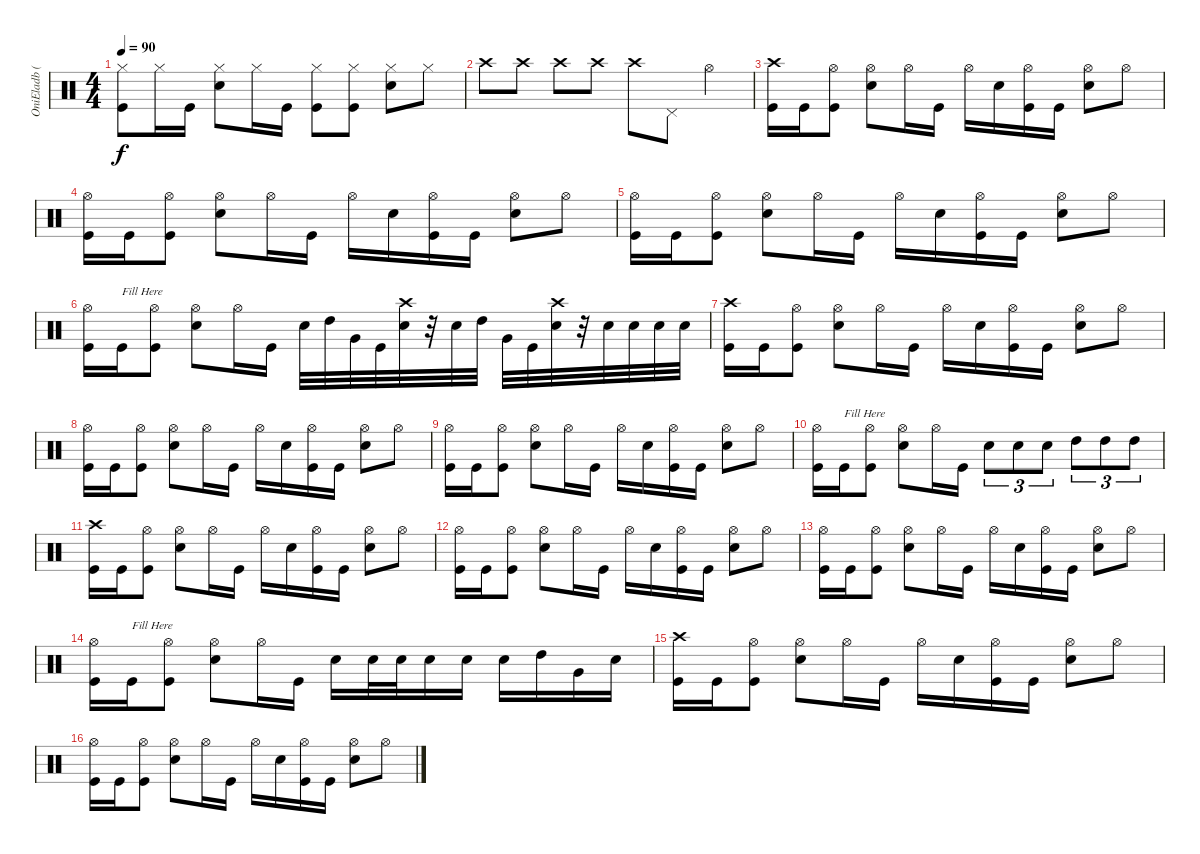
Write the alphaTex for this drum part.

\track ("OniEladb (Battérie)" "OniEladb (") {instrument percussion}
\staff {score}
\articulation defaults
\ts (4 4)
\tempo 90
\clef neutral
\ks c
("Hi-Hat (closed)" "Kick (hit)").8{dy f} "Hi-Hat (closed)".16 "Kick (hit)".16 ("Hi-Hat (closed)" "Snare (hit) 2").8 "Hi-Hat (closed)".16 "Kick (hit)".16 ("Hi-Hat (closed)" "Kick (hit)").8 ("Hi-Hat (closed)" "Kick (hit)").8 ("Hi-Hat (closed)" "Snare (hit) 2").8 "Hi-Hat (closed)".8 |
"Crash high (hit)".8 "Crash high (hit)".8 "Crash high (hit)".8 "Crash high (hit)".8 "Crash high (hit)".8 "Pedal Hi-Hat (hit)".8 "Hi-Hat (open)".4 |
("Crash high (hit)" "Kick (hit)").16 "Kick (hit)".16 ("Hi-Hat (open)" "Kick (hit)").8 ("Hi-Hat (open)" "Snare (hit) 2").8 "Hi-Hat (open)".16 "Kick (hit)".16 "Hi-Hat (open)".16 "Snare (hit) 2".16 ("Hi-Hat (open)" "Kick (hit)").16 "Kick (hit)".16 ("Hi-Hat (open)" "Snare (hit) 2").8 "Hi-Hat (open)".8 |
("Hi-Hat (open)" "Kick (hit)").16 "Kick (hit)".16 ("Hi-Hat (open)" "Kick (hit)").8 ("Hi-Hat (open)" "Snare (hit) 2").8 "Hi-Hat (open)".16 "Kick (hit)".16 "Hi-Hat (open)".16 "Snare (hit) 2".16 ("Hi-Hat (open)" "Kick (hit)").16 "Kick (hit)".16 ("Hi-Hat (open)" "Snare (hit) 2").8 "Hi-Hat (open)".8 |
("Hi-Hat (open)" "Kick (hit)").16 "Kick (hit)".16 ("Hi-Hat (open)" "Kick (hit)").8 ("Hi-Hat (open)" "Snare (hit) 2").8 "Hi-Hat (open)".16 "Kick (hit)".16 "Hi-Hat (open)".16 "Snare (hit) 2".16 ("Hi-Hat (open)" "Kick (hit)").16 "Kick (hit)".16 ("Hi-Hat (open)" "Snare (hit) 2").8 "Hi-Hat (open)".8 |
("Hi-Hat (open)" "Kick (hit)").16 "Kick (hit)".16{txt "Fill Here"} ("Hi-Hat (open)" "Kick (hit)").8 ("Hi-Hat (open)" "Snare (hit) 2").8 "Hi-Hat (open)".16 "Kick (hit)".16 "Snare (hit) 2".32 "High Tom (hit)".32 "Very Low Tom (hit)".32 "Kick (hit)".32 ("Crash high (hit)" "Snare (hit) 2").32 r.32 "Snare (hit) 2".32 "High Tom (hit)".32 "Very Low Tom (hit)".32 "Kick (hit)".32 ("Crash high (hit)" "Snare (hit) 2").32 r.32 "Snare (hit) 2".32 "Snare (hit) 2".32 "Snare (hit) 2".32 "Snare (hit) 2".32 |
("Crash high (hit)" "Kick (hit)").16 "Kick (hit)".16 ("Hi-Hat (open)" "Kick (hit)").8 ("Hi-Hat (open)" "Snare (hit) 2").8 "Hi-Hat (open)".16 "Kick (hit)".16 "Hi-Hat (open)".16 "Snare (hit) 2".16 ("Hi-Hat (open)" "Kick (hit)").16 "Kick (hit)".16 ("Hi-Hat (open)" "Snare (hit) 2").8 "Hi-Hat (open)".8 |
("Hi-Hat (open)" "Kick (hit)").16 "Kick (hit)".16 ("Hi-Hat (open)" "Kick (hit)").8 ("Hi-Hat (open)" "Snare (hit) 2").8 "Hi-Hat (open)".16 "Kick (hit)".16 "Hi-Hat (open)".16 "Snare (hit) 2".16 ("Hi-Hat (open)" "Kick (hit)").16 "Kick (hit)".16 ("Hi-Hat (open)" "Snare (hit) 2").8 "Hi-Hat (open)".8 |
("Hi-Hat (open)" "Kick (hit)").16 "Kick (hit)".16 ("Hi-Hat (open)" "Kick (hit)").8 ("Hi-Hat (open)" "Snare (hit) 2").8 "Hi-Hat (open)".16 "Kick (hit)".16 "Hi-Hat (open)".16 "Snare (hit) 2".16 ("Hi-Hat (open)" "Kick (hit)").16 "Kick (hit)".16 ("Hi-Hat (open)" "Snare (hit) 2").8 "Hi-Hat (open)".8 |
("Hi-Hat (open)" "Kick (hit)").16 "Kick (hit)".16{txt "Fill Here"} ("Hi-Hat (open)" "Kick (hit)").8 ("Hi-Hat (open)" "Snare (hit) 2").8 "Hi-Hat (open)".16 "Kick (hit)".16 "Snare (hit) 2".8{tu (3 2)} "Snare (hit) 2".8{tu (3 2)} "Snare (hit) 2".8{tu (3 2)} "High Tom (hit)".8{tu (3 2)} "High Tom (hit)".8{tu (3 2)} "High Tom (hit)".8{tu (3 2)} |
("Crash high (hit)" "Kick (hit)").16 "Kick (hit)".16 ("Hi-Hat (open)" "Kick (hit)").8 ("Hi-Hat (open)" "Snare (hit) 2").8 "Hi-Hat (open)".16 "Kick (hit)".16 "Hi-Hat (open)".16 "Snare (hit) 2".16 ("Hi-Hat (open)" "Kick (hit)").16 "Kick (hit)".16 ("Hi-Hat (open)" "Snare (hit) 2").8 "Hi-Hat (open)".8 |
("Hi-Hat (open)" "Kick (hit)").16 "Kick (hit)".16 ("Hi-Hat (open)" "Kick (hit)").8 ("Hi-Hat (open)" "Snare (hit) 2").8 "Hi-Hat (open)".16 "Kick (hit)".16 "Hi-Hat (open)".16 "Snare (hit) 2".16 ("Hi-Hat (open)" "Kick (hit)").16 "Kick (hit)".16 ("Hi-Hat (open)" "Snare (hit) 2").8 "Hi-Hat (open)".8 |
("Hi-Hat (open)" "Kick (hit)").16 "Kick (hit)".16 ("Hi-Hat (open)" "Kick (hit)").8 ("Hi-Hat (open)" "Snare (hit) 2").8 "Hi-Hat (open)".16 "Kick (hit)".16 "Hi-Hat (open)".16 "Snare (hit) 2".16 ("Hi-Hat (open)" "Kick (hit)").16 "Kick (hit)".16 ("Hi-Hat (open)" "Snare (hit) 2").8 "Hi-Hat (open)".8 |
("Hi-Hat (open)" "Kick (hit)").16 "Kick (hit)".16{txt "Fill Here"} ("Hi-Hat (open)" "Kick (hit)").8 ("Hi-Hat (open)" "Snare (hit) 2").8 "Hi-Hat (open)".16 "Kick (hit)".16 "Snare (hit) 2".16 "Snare (hit) 2".32 "Snare (hit) 2".32 "Snare (hit) 2".16 "Snare (hit) 2".16 "Snare (hit) 2".16 "High Tom (hit)".16 "Very Low Tom (hit)".16 "Snare (hit) 2".16 |
("Crash high (hit)" "Kick (hit)").16 "Kick (hit)".16 ("Hi-Hat (open)" "Kick (hit)").8 ("Hi-Hat (open)" "Snare (hit) 2").8 "Hi-Hat (open)".16 "Kick (hit)".16 "Hi-Hat (open)".16 "Snare (hit) 2".16 ("Hi-Hat (open)" "Kick (hit)").16 "Kick (hit)".16 ("Hi-Hat (open)" "Snare (hit) 2").8 "Hi-Hat (open)".8 |
("Hi-Hat (open)" "Kick (hit)").16 "Kick (hit)".16 ("Hi-Hat (open)" "Kick (hit)").8 ("Hi-Hat (open)" "Snare (hit) 2").8 "Hi-Hat (open)".16 "Kick (hit)".16 "Hi-Hat (open)".16 "Snare (hit) 2".16 ("Hi-Hat (open)" "Kick (hit)").16 "Kick (hit)".16 ("Hi-Hat (open)" "Snare (hit) 2").8 "Hi-Hat (open)".8
